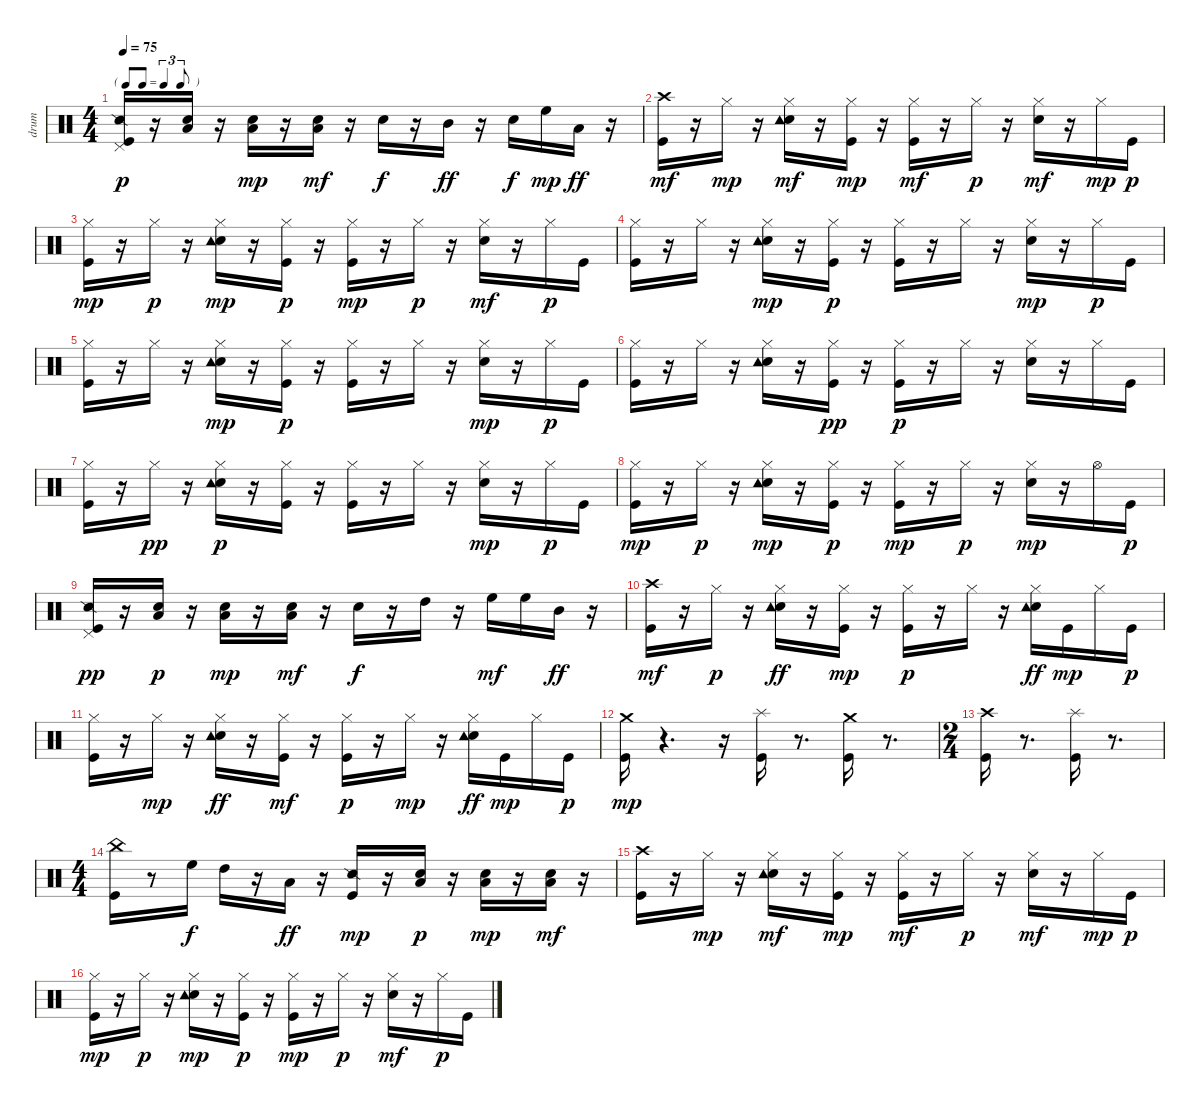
\track ("drum" "drum") {instrument percussion}
\staff {score}
\articulation defaults
\ts (4 4)
\tf triplet8th
\tempo 75
\clef neutral
\ks c
("Snare (side stick) 2" "Kick (hit)" "Pedal Hi-Hat (hit)").16{dy p} r.16 ("Snare (hit) 2" "Low Floor Tom (hit)").16 r.16 ("Snare (hit) 2" "Low Floor Tom (hit)").16{dy mp} r.16 ("Snare (hit) 2" "Low Floor Tom (hit)").16{dy mf} r.16 "Snare (hit) 2".16{dy f} r.16 "Mid Tom (hit)".16{dy ff} r.16 "Snare (hit) 2".16{dy f} "High Floor Tom (hit)".16{dy mp} "Low Tom (hit)".16{dy ff} r.16 |
("Crash high (hit)" "Kick (hit)").16{dy mf} r.16 "Hi-Hat (closed)".16{dy mp} r.16 ("Hi-Hat (closed)" "Snare (hit) 2" "Tambourine (hit)").16{dy mf} r.16 ("Hi-Hat (closed)" "Kick (hit)").16{dy mp} r.16 ("Hi-Hat (closed)" "Kick (hit)").16{dy mf} r.16 "Hi-Hat (closed)".16{dy p} r.16 ("Hi-Hat (closed)" "Snare (hit) 2").16{dy mf} r.16 "Hi-Hat (closed)".16{dy mp} "Kick (hit)".16{dy p} |
("Hi-Hat (closed)" "Kick (hit)").16{dy mp} r.16 "Hi-Hat (closed)".16{dy p} r.16 ("Hi-Hat (closed)" "Snare (hit) 2" "Tambourine (hit)").16{dy mp} r.16 ("Hi-Hat (closed)" "Kick (hit)").16{dy p} r.16 ("Hi-Hat (closed)" "Kick (hit)").16{dy mp} r.16 "Hi-Hat (closed)".16{dy p} r.16 ("Hi-Hat (closed)" "Snare (hit) 2").16{dy mf} r.16 "Hi-Hat (closed)".16{dy p} "Kick (hit)".16 |
("Hi-Hat (closed)" "Kick (hit)").16 r.16 "Hi-Hat (closed)".16 r.16 ("Hi-Hat (closed)" "Snare (hit) 2" "Tambourine (hit)").16{dy mp} r.16 ("Hi-Hat (closed)" "Kick (hit)").16{dy p} r.16 ("Hi-Hat (closed)" "Kick (hit)").16 r.16 "Hi-Hat (closed)".16 r.16 ("Hi-Hat (closed)" "Snare (hit) 2").16{dy mp} r.16 "Hi-Hat (closed)".16{dy p} "Kick (hit)".16 |
("Hi-Hat (closed)" "Kick (hit)").16 r.16 "Hi-Hat (closed)".16 r.16 ("Hi-Hat (closed)" "Snare (hit) 2" "Tambourine (hit)").16{dy mp} r.16 ("Hi-Hat (closed)" "Kick (hit)").16{dy p} r.16 ("Hi-Hat (closed)" "Kick (hit)").16 r.16 "Hi-Hat (closed)".16 r.16 ("Hi-Hat (closed)" "Snare (hit) 2").16{dy mp} r.16 "Hi-Hat (closed)".16{dy p} "Kick (hit)".16 |
("Hi-Hat (closed)" "Kick (hit)").16 r.16 "Hi-Hat (closed)".16 r.16 ("Hi-Hat (closed)" "Snare (hit) 2" "Tambourine (hit)").16 r.16 ("Hi-Hat (closed)" "Kick (hit)").16{dy pp} r.16 ("Hi-Hat (closed)" "Kick (hit)").16{dy p} r.16 "Hi-Hat (closed)".16 r.16 ("Hi-Hat (closed)" "Snare (hit) 2").16 r.16 "Hi-Hat (closed)".16 "Kick (hit)".16 |
("Hi-Hat (closed)" "Kick (hit)").16 r.16 "Hi-Hat (closed)".16{dy pp} r.16 ("Hi-Hat (closed)" "Snare (hit) 2" "Tambourine (hit)").16{dy p} r.16 ("Hi-Hat (closed)" "Kick (hit)").16 r.16 ("Hi-Hat (closed)" "Kick (hit)").16 r.16 "Hi-Hat (closed)".16 r.16 ("Hi-Hat (closed)" "Snare (hit) 2").16{dy mp} r.16 "Hi-Hat (closed)".16{dy p} "Kick (hit)".16 |
("Hi-Hat (closed)" "Kick (hit)").16{dy mp} r.16 "Hi-Hat (closed)".16{dy p} r.16 ("Hi-Hat (closed)" "Snare (hit) 2" "Tambourine (hit)").16{dy mp} r.16 ("Hi-Hat (closed)" "Kick (hit)").16{dy p} r.16 ("Hi-Hat (closed)" "Kick (hit)").16{dy mp} r.16 "Hi-Hat (closed)".16{dy p} r.16 ("Hi-Hat (closed)" "Snare (hit) 2").16{dy mp} r.16 "Hi-Hat (open)".16 "Kick (hit)".16{dy p} |
("Snare (side stick) 2" "Kick (hit)" "Pedal Hi-Hat (hit)").16{dy pp} r.16 ("Snare (hit) 2" "Low Floor Tom (hit)").16{dy p} r.16 ("Snare (hit) 2" "Low Floor Tom (hit)").16{dy mp} r.16 ("Snare (hit) 2" "Low Floor Tom (hit)").16{dy mf} r.16 "Snare (hit) 2".16{dy f} r.16 "High Tom (hit)".16 r.16 "High Floor Tom (hit)".16{dy mf} "High Floor Tom (hit)".16 "Mid Tom (hit)".16{dy ff} r.16 |
("Crash high (hit)" "Kick (hit)").16{dy mf} r.16 "Hi-Hat (closed)".16{dy p} r.16 ("Hi-Hat (closed)" "Snare (hit) 2" "Tambourine (hit)").16{dy ff} r.16 ("Hi-Hat (closed)" "Kick (hit)").16{dy mp} r.16 ("Hi-Hat (closed)" "Kick (hit)").16{dy p} r.16 "Hi-Hat (closed)".16 r.16 ("Hi-Hat (closed)" "Snare (hit) 2" "Tambourine (hit)").16{dy ff} "Kick (hit)".16{dy mp} "Hi-Hat (closed)".16 "Kick (hit)".16{dy p} |
("Hi-Hat (closed)" "Kick (hit)").16 r.16 "Hi-Hat (closed)".16{dy mp} r.16 ("Hi-Hat (closed)" "Snare (hit) 2" "Tambourine (hit)").16{dy ff} r.16 ("Hi-Hat (closed)" "Kick (hit)").16{dy mf} r.16 ("Hi-Hat (closed)" "Kick (hit)").16{dy p} r.16 "Hi-Hat (closed)".16{dy mp} r.16 ("Hi-Hat (closed)" "Snare (hit) 2" "Tambourine (hit)").16{dy ff} "Kick (hit)".16{dy mp} "Hi-Hat (closed)".16 "Kick (hit)".16{dy p} |
("Crash medium (hit)" "Kick (hit)").16{dy mp} r.4{d} r.16 ("Kick (hit)" "Splash (hit)").16 r.8{d} ("Crash medium (hit)" "Kick (hit)").16 r.8{d} |
\ts (2 4)
("Crash high (hit)" "Kick (hit)").16 r.8{d} ("Kick (hit)" "Splash (hit)").16 r.8{d} |
\ts (4 4)
("China (hit)" "Kick (hit)").16 r.8 "High Floor Tom (hit)".16{dy f} "High Tom (hit)".16 r.16 "Low Tom (hit)".16{dy ff} r.16 ("Snare (side stick) 2" "Kick (hit)").16{dy mp} r.16 ("Snare (hit) 2" "Low Floor Tom (hit)").16{dy p} r.16 ("Snare (hit) 2" "Low Floor Tom (hit)").16{dy mp} r.16 ("Snare (hit) 2" "Low Floor Tom (hit)").16{dy mf} r.16 |
("Crash high (hit)" "Kick (hit)").16 r.16 "Hi-Hat (closed)".16{dy mp} r.16 ("Hi-Hat (closed)" "Snare (hit) 2" "Tambourine (hit)").16{dy mf} r.16 ("Hi-Hat (closed)" "Kick (hit)").16{dy mp} r.16 ("Hi-Hat (closed)" "Kick (hit)").16{dy mf} r.16 "Hi-Hat (closed)".16{dy p} r.16 ("Hi-Hat (closed)" "Snare (hit) 2").16{dy mf} r.16 "Hi-Hat (closed)".16{dy mp} "Kick (hit)".16{dy p} |
("Hi-Hat (closed)" "Kick (hit)").16{dy mp} r.16 "Hi-Hat (closed)".16{dy p} r.16 ("Hi-Hat (closed)" "Snare (hit) 2" "Tambourine (hit)").16{dy mp} r.16 ("Hi-Hat (closed)" "Kick (hit)").16{dy p} r.16 ("Hi-Hat (closed)" "Kick (hit)").16{dy mp} r.16 "Hi-Hat (closed)".16{dy p} r.16 ("Hi-Hat (closed)" "Snare (hit) 2").16{dy mf} r.16 "Hi-Hat (closed)".16{dy p} "Kick (hit)".16
